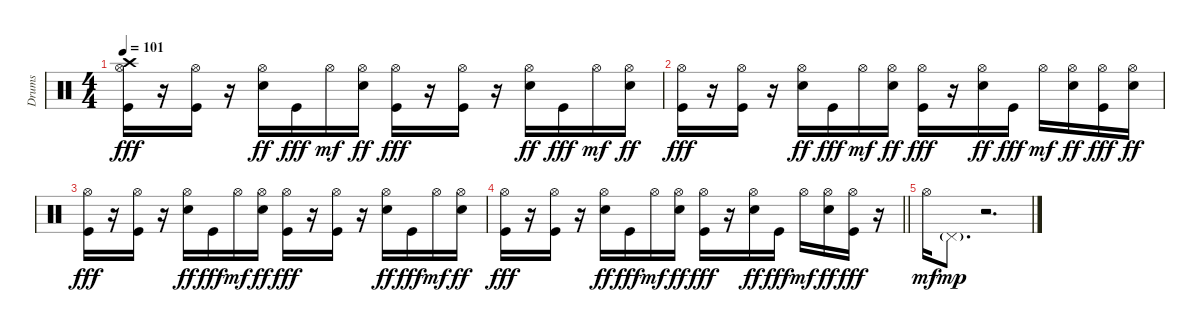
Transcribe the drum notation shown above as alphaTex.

\track ("Drums" "Drums") {instrument percussion}
\staff {score}
\articulation defaults
\ts (4 4)
\tempo 101
\clef neutral
\ks c
("Crash high (hit)" "Hi-Hat (open)" "Kick (hit)").16{dy fff} r.16 ("Hi-Hat (open)" "Kick (hit)").16 r.16 ("Hi-Hat (open)" "Electric Snare (hit)").16{dy ff} "Kick (hit)".16{dy fff} "Hi-Hat (open)".16{dy mf} ("Hi-Hat (open)" "Electric Snare (hit)").16{dy ff} ("Hi-Hat (open)" "Kick (hit)").16{dy fff} r.16 ("Hi-Hat (open)" "Kick (hit)").16 r.16 ("Hi-Hat (open)" "Electric Snare (hit)").16{dy ff} "Kick (hit)".16{dy fff} "Hi-Hat (open)".16{dy mf} ("Hi-Hat (open)" "Electric Snare (hit)").16{dy ff} |
("Hi-Hat (open)" "Kick (hit)").16{dy fff} r.16 ("Hi-Hat (open)" "Kick (hit)").16 r.16 ("Hi-Hat (open)" "Electric Snare (hit)").16{dy ff} "Kick (hit)".16{dy fff} "Hi-Hat (open)".16{dy mf} ("Hi-Hat (open)" "Electric Snare (hit)").16{dy ff} ("Hi-Hat (open)" "Kick (hit)").16{dy fff} r.16 ("Hi-Hat (open)" "Electric Snare (hit)").16{dy ff} "Kick (hit)".16{dy fff} "Hi-Hat (open)".16{dy mf} ("Hi-Hat (open)" "Electric Snare (hit)").16{dy ff} ("Hi-Hat (open)" "Kick (hit)").16{dy fff} ("Hi-Hat (open)" "Electric Snare (hit)").16{dy ff} |
("Hi-Hat (open)" "Kick (hit)").16{dy fff} r.16 ("Hi-Hat (open)" "Kick (hit)").16 r.16 ("Hi-Hat (open)" "Electric Snare (hit)").16{dy ff} "Kick (hit)".16{dy fff} "Hi-Hat (open)".16{dy mf} ("Hi-Hat (open)" "Electric Snare (hit)").16{dy ff} ("Hi-Hat (open)" "Kick (hit)").16{dy fff} r.16 ("Hi-Hat (open)" "Kick (hit)").16 r.16 ("Hi-Hat (open)" "Electric Snare (hit)").16{dy ff} "Kick (hit)".16{dy fff} "Hi-Hat (open)".16{dy mf} ("Hi-Hat (open)" "Electric Snare (hit)").16{dy ff} |
\barLineRight lightlight
("Hi-Hat (open)" "Kick (hit)").16{dy fff} r.16 ("Hi-Hat (open)" "Kick (hit)").16 r.16 ("Hi-Hat (open)" "Electric Snare (hit)").16{dy ff} "Kick (hit)".16{dy fff} "Hi-Hat (open)".16{dy mf} ("Hi-Hat (open)" "Electric Snare (hit)").16{dy ff} ("Hi-Hat (open)" "Kick (hit)").16{dy fff} r.16 ("Hi-Hat (open)" "Electric Snare (hit)").16{dy ff} "Kick (hit)".16{dy fff} "Hi-Hat (open)".16{dy mf} ("Hi-Hat (open)" "Electric Snare (hit)").16{dy ff} ("Hi-Hat (open)" "Kick (hit)").16{dy fff} r.16 |
"Hi-Hat (open)".16{dy mf} "Pedal Hi-Hat (hit)"{g}.8{d dy mp} r.2{d}
